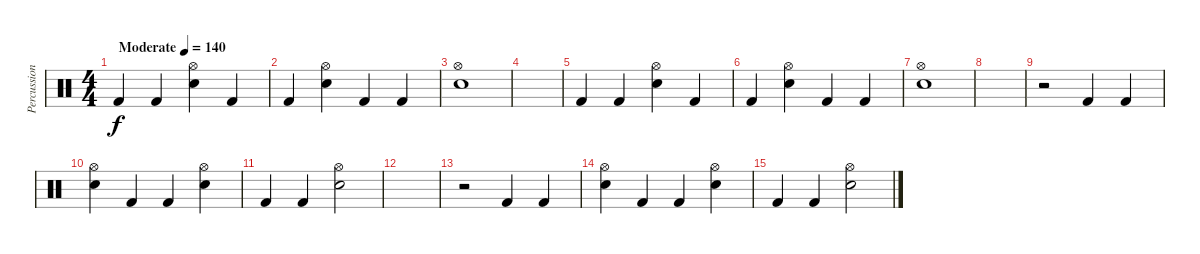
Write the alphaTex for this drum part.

\track ("Percussion" "Percussion") {instrument percussion}
\staff {score}
\articulation defaults
\ts (4 4)
\tempo (140 "Moderate")
\clef neutral
\ks c "Kick (hit) 2".4{dy f} "Kick (hit) 2".4
("Hi-Hat (open)" "Snare (hit) 2").4 "Kick (hit) 2".4 |
"Kick (hit) 2".4 ("Hi-Hat (open)" "Snare (hit) 2").4 "Kick (hit) 2".4 "Kick (hit) 2".4 |
("Hi-Hat (open)" "Snare (hit) 2").1 |
|
"Kick (hit) 2".4 "Kick (hit) 2".4 ("Hi-Hat (open)" "Snare (hit) 2").4 "Kick (hit) 2".4 |
"Kick (hit) 2".4 ("Hi-Hat (open)" "Snare (hit) 2").4 "Kick (hit) 2".4 "Kick (hit) 2".4 |
("Hi-Hat (open)" "Snare (hit) 2").1 |
|
r.2 "Kick (hit) 2".4 "Kick (hit) 2".4 |
("Hi-Hat (open)" "Snare (hit) 2").4 "Kick (hit) 2".4 "Kick (hit) 2".4 ("Hi-Hat (open)" "Snare (hit) 2").4 |
"Kick (hit) 2".4 "Kick (hit) 2".4 ("Hi-Hat (open)" "Snare (hit) 2").2 |
|
r.2 "Kick (hit) 2".4 "Kick (hit) 2".4 |
("Hi-Hat (open)" "Snare (hit) 2").4 "Kick (hit) 2".4 "Kick (hit) 2".4 ("Hi-Hat (open)" "Snare (hit) 2").4 |
"Kick (hit) 2".4 "Kick (hit) 2".4 ("Hi-Hat (open)" "Snare (hit) 2").2
